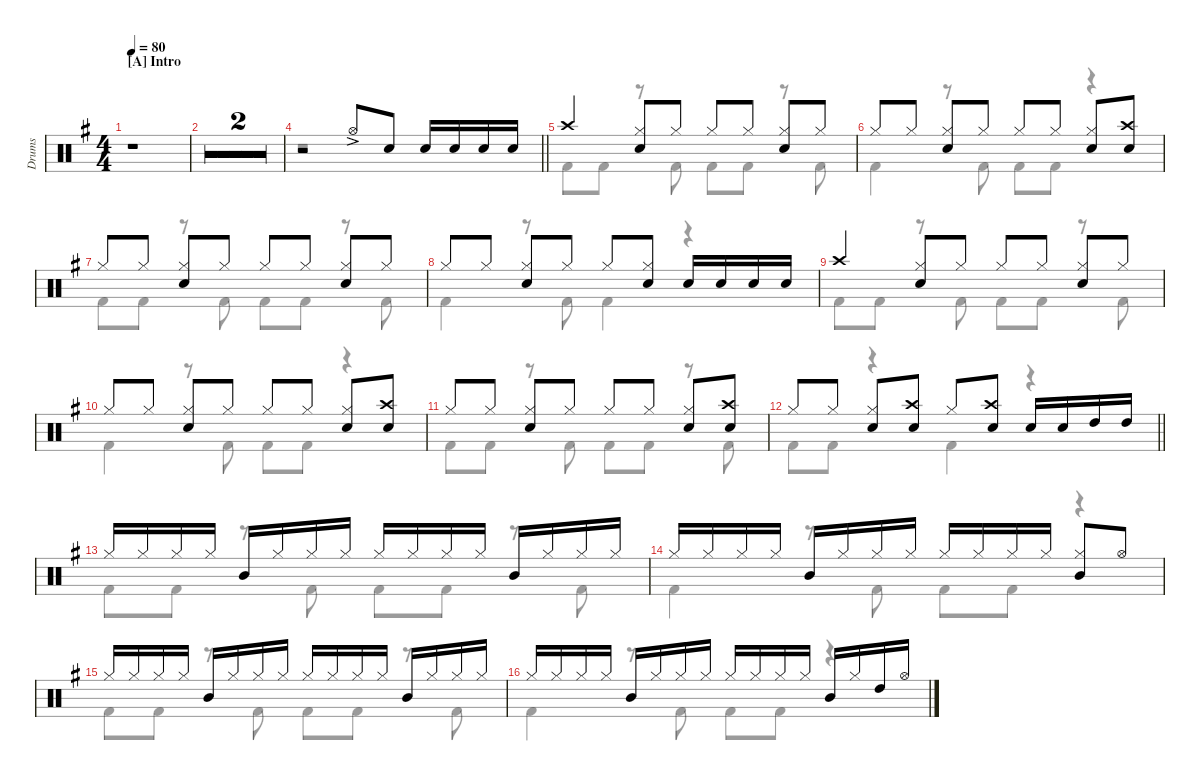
\hideDynamics
\bracketExtendMode nobrackets
\otherSystemsTrackNameOrientation horizontal
\track ("Drums" "Drums") {defaultSystemsLayout 4 multiBarRest instrument percussion}
\staff {score}
\articulation defaults
\voice
\ts (4 4)
\section ("A" "Intro")
\tempo 80
\clef neutral
\ks g
r.1{dy f beam Down} |
r.1{beam Down} |
r.1{beam Down} |
\barLineRight lightlight
r.2{beam Up} "Hi-Hat (open)"{ac acc forcenatural}.8{beam Up} "Snare (hit) 2"{acc forcenatural}.8{beam Up} "Snare (hit) 2"{acc forcenatural}.16{beam Up} "Snare (hit) 2"{acc forcenatural}.16{beam Up} "Snare (hit) 2"{acc forcenatural}.16{beam Up} "Snare (hit) 2"{acc forcenatural}.16{beam Up} |
"Crash high (hit)"{acc forcenatural}.4{beam Up} ("Hi-Hat (closed)"{acc forcenatural} "Snare (hit) 2"{acc forcenatural}).8{beam Up} "Hi-Hat (closed)"{acc forcenatural}.8{beam Up} "Hi-Hat (closed)"{acc forcenatural}.8{beam Up} "Hi-Hat (closed)"{acc forcenatural}.8{beam Up} ("Hi-Hat (closed)"{acc forcenatural} "Snare (hit) 2"{acc forcenatural}).8{beam Up} "Hi-Hat (closed)"{acc forcenatural}.8{beam Up} |
"Hi-Hat (closed)"{acc forcenatural}.8{beam Up} "Hi-Hat (closed)"{acc forcenatural}.8{beam Up} ("Hi-Hat (closed)"{acc forcenatural} "Snare (hit) 2"{acc forcenatural}).8{beam Up} "Hi-Hat (closed)"{acc forcenatural}.8{beam Up} "Hi-Hat (closed)"{acc forcenatural}.8{beam Up} "Hi-Hat (closed)"{acc forcenatural}.8{beam Up} ("Hi-Hat (closed)"{acc forcenatural} "Snare (hit) 2"{acc forcenatural}).8{beam Up} ("Snare (hit) 2"{acc forcenatural} "Crash high (hit)"{acc forcenatural}).8{beam Up} |
"Hi-Hat (closed)"{acc forcenatural}.8{beam Up} "Hi-Hat (closed)"{acc forcenatural}.8{beam Up} ("Hi-Hat (closed)"{acc forcenatural} "Snare (hit) 2"{acc forcenatural}).8{beam Up} "Hi-Hat (closed)"{acc forcenatural}.8{beam Up} "Hi-Hat (closed)"{acc forcenatural}.8{beam Up} "Hi-Hat (closed)"{acc forcenatural}.8{beam Up} ("Hi-Hat (closed)"{acc forcenatural} "Snare (hit) 2"{acc forcenatural}).8{beam Up} "Hi-Hat (closed)"{acc forcenatural}.8{beam Up} |
"Hi-Hat (closed)"{acc forcenatural}.8{beam Up} "Hi-Hat (closed)"{acc forcenatural}.8{beam Up} ("Hi-Hat (closed)"{acc forcenatural} "Snare (hit) 2"{acc forcenatural}).8{beam Up} "Hi-Hat (closed)"{acc forcenatural}.8{beam Up} "Hi-Hat (closed)"{acc forcenatural}.8{beam Up} ("Hi-Hat (closed)"{acc forcenatural} "Snare (hit) 2"{acc forcenatural}).8{beam Up} "Snare (hit) 2"{acc forcenatural}.16{beam Up} "Snare (hit) 2"{acc forcenatural}.16{beam Up} "Snare (hit) 2"{acc forcenatural}.16{beam Up} "Snare (hit) 2"{acc forcenatural}.16{beam Up} |
"Crash high (hit)"{acc forcenatural}.4{beam Up} ("Hi-Hat (closed)"{acc forcenatural} "Snare (hit) 2"{acc forcenatural}).8{beam Up} "Hi-Hat (closed)"{acc forcenatural}.8{beam Up} "Hi-Hat (closed)"{acc forcenatural}.8{beam Up} "Hi-Hat (closed)"{acc forcenatural}.8{beam Up} ("Hi-Hat (closed)"{acc forcenatural} "Snare (hit) 2"{acc forcenatural}).8{beam Up} "Hi-Hat (closed)"{acc forcenatural}.8{beam Up} |
"Hi-Hat (closed)"{acc forcenatural}.8{beam Up} "Hi-Hat (closed)"{acc forcenatural}.8{beam Up} ("Hi-Hat (closed)"{acc forcenatural} "Snare (hit) 2"{acc forcenatural}).8{beam Up} "Hi-Hat (closed)"{acc forcenatural}.8{beam Up} "Hi-Hat (closed)"{acc forcenatural}.8{beam Up} "Hi-Hat (closed)"{acc forcenatural}.8{beam Up} ("Hi-Hat (closed)"{acc forcenatural} "Snare (hit) 2"{acc forcenatural}).8{beam Up} ("Snare (hit) 2"{acc forcenatural} "Crash high (hit)"{acc forcenatural}).8{beam Up} |
"Hi-Hat (closed)"{acc forcenatural}.8{beam Up} "Hi-Hat (closed)"{acc forcenatural}.8{beam Up} ("Hi-Hat (closed)"{acc forcenatural} "Snare (hit) 2"{acc forcenatural}).8{beam Up} "Hi-Hat (closed)"{acc forcenatural}.8{beam Up} "Hi-Hat (closed)"{acc forcenatural}.8{beam Up} "Hi-Hat (closed)"{acc forcenatural}.8{beam Up} ("Hi-Hat (closed)"{acc forcenatural} "Snare (hit) 2"{acc forcenatural}).8{beam Up} ("Snare (hit) 2"{acc forcenatural} "Crash high (hit)"{acc forcenatural}).8{beam Up} |
\barLineRight lightlight "Hi-Hat (closed)"{acc forcenatural}.8{beam Up} "Hi-Hat (closed)"{acc forcenatural}.8{beam Up}
("Hi-Hat (closed)"{acc forcenatural} "Snare (hit) 2"{acc forcenatural}).8{beam Up} ("Snare (hit) 2"{acc forcenatural} "Crash high (hit)"{acc forcenatural}).8{beam Up} "Hi-Hat (closed)"{acc forcenatural}.8{beam Up} ("Snare (hit) 2"{acc forcenatural} "Crash high (hit)"{acc forcenatural}).8{beam Up} "Snare (hit) 2"{acc forcenatural}.16{beam Up} "Snare (hit) 2"{acc forcenatural}.16{beam Up} "High Tom (hit)"{acc forcenatural}.16{beam Up} "High Tom (hit)"{acc forcenatural}.16{beam Up} |
"Hi-Hat (closed)"{acc forcenatural}.16{beam Up} "Hi-Hat (closed)"{acc forcenatural}.16{beam Up} "Hi-Hat (closed)"{acc forcenatural}.16{beam Up} "Hi-Hat (closed)"{acc forcenatural}.16{beam Up} "Mid Tom (hit)"{acc forcenatural}.16{beam Up} "Hi-Hat (closed)"{acc forcenatural}.16{beam Up} "Hi-Hat (closed)"{acc forcenatural}.16{beam Up} "Hi-Hat (closed)"{acc forcenatural}.16{beam Up} "Hi-Hat (closed)"{acc forcenatural}.16{beam Up} "Hi-Hat (closed)"{acc forcenatural}.16{beam Up} "Hi-Hat (closed)"{acc forcenatural}.16{beam Up} "Hi-Hat (closed)"{acc forcenatural}.16{beam Up} "Mid Tom (hit)"{acc forcenatural}.16{beam Up} "Hi-Hat (closed)"{acc forcenatural}.16{beam Up} "Hi-Hat (closed)"{acc forcenatural}.16{beam Up} "Hi-Hat (closed)"{acc forcenatural}.16{beam Up} |
"Hi-Hat (closed)"{acc forcenatural}.16{beam Up} "Hi-Hat (closed)"{acc forcenatural}.16{beam Up} "Hi-Hat (closed)"{acc forcenatural}.16{beam Up} "Hi-Hat (closed)"{acc forcenatural}.16{beam Up} "Mid Tom (hit)"{acc forcenatural}.16{beam Up} "Hi-Hat (closed)"{acc forcenatural}.16{beam Up} "Hi-Hat (closed)"{acc forcenatural}.16{beam Up} "Hi-Hat (closed)"{acc forcenatural}.16{beam Up} "Hi-Hat (closed)"{acc forcenatural}.16{beam Up} "Hi-Hat (closed)"{acc forcenatural}.16{beam Up} "Hi-Hat (closed)"{acc forcenatural}.16{beam Up} "Hi-Hat (closed)"{acc forcenatural}.16{beam Up} ("Hi-Hat (closed)"{acc forcenatural} "Mid Tom (hit)"{acc forcenatural}).8{beam Up} "Hi-Hat (open)"{acc forcenatural}.8{beam Up} |
"Hi-Hat (closed)"{acc forcenatural}.16{beam Up} "Hi-Hat (closed)"{acc forcenatural}.16{beam Up} "Hi-Hat (closed)"{acc forcenatural}.16{beam Up} "Hi-Hat (closed)"{acc forcenatural}.16{beam Up} "Mid Tom (hit)"{acc forcenatural}.16{beam Up} "Hi-Hat (closed)"{acc forcenatural}.16{beam Up} "Hi-Hat (closed)"{acc forcenatural}.16{beam Up} "Hi-Hat (closed)"{acc forcenatural}.16{beam Up} "Hi-Hat (closed)"{acc forcenatural}.16{beam Up} "Hi-Hat (closed)"{acc forcenatural}.16{beam Up} "Hi-Hat (closed)"{acc forcenatural}.16{beam Up} "Hi-Hat (closed)"{acc forcenatural}.16{beam Up} "Mid Tom (hit)"{acc forcenatural}.16{beam Up} "Hi-Hat (closed)"{acc forcenatural}.16{beam Up} "Hi-Hat (closed)"{acc forcenatural}.16{beam Up} "Hi-Hat (closed)"{acc forcenatural}.16{beam Up} |
"Hi-Hat (closed)"{acc forcenatural}.16{beam Up} "Hi-Hat (closed)"{acc forcenatural}.16{beam Up} "Hi-Hat (closed)"{acc forcenatural}.16{beam Up} "Hi-Hat (closed)"{acc forcenatural}.16{beam Up} "Mid Tom (hit)"{acc forcenatural}.16{beam Up} "Hi-Hat (closed)"{acc forcenatural}.16{beam Up} "Hi-Hat (closed)"{acc forcenatural}.16{beam Up} "Hi-Hat (closed)"{acc forcenatural}.16{beam Up} "Hi-Hat (closed)"{acc forcenatural}.16{beam Up} "Hi-Hat (closed)"{acc forcenatural}.16{beam Up} "Hi-Hat (closed)"{acc forcenatural}.16{beam Up} "Hi-Hat (closed)"{acc forcenatural}.16{beam Up} "Mid Tom (hit)"{acc forcenatural}.16{beam Up} "Hi-Hat (closed)"{acc forcenatural}.16{beam Up} "High Tom (hit)"{acc forcenatural}.16{beam Up} "Hi-Hat (open)"{acc forcenatural}.16{beam Up}
\voice
\clef neutral
\ottava regular
\simile none
\ks g
|
|
|
\barLineRight lightlight
r.1{beam Down} |
"Kick (hit) 2"{acc forcenatural}.8{beam Down} "Kick (hit) 2"{acc forcenatural}.8{beam Down} r.8{beam Down} "Kick (hit) 2"{acc forcenatural}.8{beam Down} "Kick (hit) 2"{acc forcenatural}.8{beam Down} "Kick (hit) 2"{acc forcenatural}.8{beam Down} r.8{beam Down} "Kick (hit) 2"{acc forcenatural}.8{beam Down} |
"Kick (hit) 2"{acc forcenatural}.4{beam Down} r.8{beam Down} "Kick (hit) 2"{acc forcenatural}.8{beam Down} "Kick (hit) 2"{acc forcenatural}.8{beam Down} "Kick (hit) 2"{acc forcenatural}.8{beam Down} r.4{beam Down} |
"Kick (hit) 2"{acc forcenatural}.8{beam Down} "Kick (hit) 2"{acc forcenatural}.8{beam Down} r.8{beam Down} "Kick (hit) 2"{acc forcenatural}.8{beam Down} "Kick (hit) 2"{acc forcenatural}.8{beam Down} "Kick (hit) 2"{acc forcenatural}.8{beam Down} r.8{beam Down} "Kick (hit) 2"{acc forcenatural}.8{beam Down} |
"Kick (hit) 2"{acc forcenatural}.4{beam Down} r.8{beam Down} "Kick (hit) 2"{acc forcenatural}.8{beam Down} "Kick (hit) 2"{acc forcenatural}.4{beam Down} r.4{beam Down} |
"Kick (hit) 2"{acc forcenatural}.8{beam Down} "Kick (hit) 2"{acc forcenatural}.8{beam Down} r.8{beam Down} "Kick (hit) 2"{acc forcenatural}.8{beam Down} "Kick (hit) 2"{acc forcenatural}.8{beam Down} "Kick (hit) 2"{acc forcenatural}.8{beam Down} r.8{beam Down} "Kick (hit) 2"{acc forcenatural}.8{beam Down} |
"Kick (hit) 2"{acc forcenatural}.4{beam Down} r.8{beam Down} "Kick (hit) 2"{acc forcenatural}.8{beam Down} "Kick (hit) 2"{acc forcenatural}.8{beam Down} "Kick (hit) 2"{acc forcenatural}.8{beam Down} r.4{beam Down} |
"Kick (hit) 2"{acc forcenatural}.8{beam Down} "Kick (hit) 2"{acc forcenatural}.8{beam Down} r.8{beam Down} "Kick (hit) 2"{acc forcenatural}.8{beam Down} "Kick (hit) 2"{acc forcenatural}.8{beam Down} "Kick (hit) 2"{acc forcenatural}.8{beam Down} r.8{beam Down} "Kick (hit) 2"{acc forcenatural}.8{beam Down} |
\barLineRight lightlight "Kick (hit) 2"{acc forcenatural}.8{beam Down} "Kick (hit) 2"{acc forcenatural}.8{beam Down}
r.4{beam Down} "Kick (hit) 2"{acc forcenatural}.4{beam Down} r.4{beam Down} |
"Kick (hit) 2"{acc forcenatural}.8{beam Down} "Kick (hit) 2"{acc forcenatural}.8{beam Down} r.8{beam Down} "Kick (hit) 2"{acc forcenatural}.8{beam Down} "Kick (hit) 2"{acc forcenatural}.8{beam Down} "Kick (hit) 2"{acc forcenatural}.8{beam Down} r.8{beam Down} "Kick (hit) 2"{acc forcenatural}.8{beam Down} |
"Kick (hit) 2"{acc forcenatural}.4{beam Down} r.8{beam Down} "Kick (hit) 2"{acc forcenatural}.8{beam Down} "Kick (hit) 2"{acc forcenatural}.8{beam Down} "Kick (hit) 2"{acc forcenatural}.8{beam Down} r.4{beam Down} |
"Kick (hit) 2"{acc forcenatural}.8{beam Down} "Kick (hit) 2"{acc forcenatural}.8{beam Down} r.8{beam Down} "Kick (hit) 2"{acc forcenatural}.8{beam Down} "Kick (hit) 2"{acc forcenatural}.8{beam Down} "Kick (hit) 2"{acc forcenatural}.8{beam Down} r.8{beam Down} "Kick (hit) 2"{acc forcenatural}.8{beam Down} |
"Kick (hit) 2"{acc forcenatural}.4{beam Down} r.8{beam Down} "Kick (hit) 2"{acc forcenatural}.8{beam Down} "Kick (hit) 2"{acc forcenatural}.8{beam Down} "Kick (hit) 2"{acc forcenatural}.8{beam Down} r.4{beam Down}
